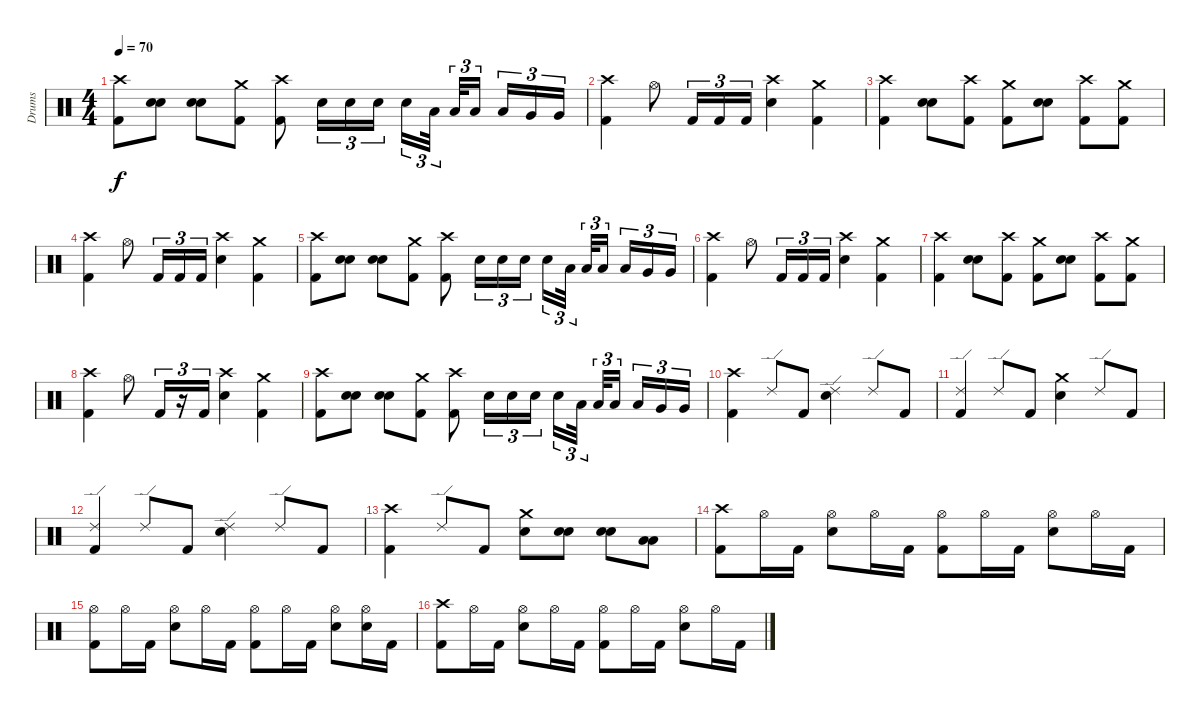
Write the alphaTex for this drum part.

\track ("Drums" "Drums") {instrument percussion}
\staff {score}
\articulation defaults
\ts (4 4)
\tempo 70
\clef neutral
\ks c
("Crash high (hit)" "Kick (hit) 2").8{dy f} ("Electric Snare (hit)" "Electric Snare (hit)").8{bu 60} ("Electric Snare (hit)" "Electric Snare (hit)").8{bu 60} ("Crash medium (hit)" "Kick (hit) 2").8 ("Crash high (hit)" "Kick (hit) 2").8 "Electric Snare (hit)".16{tu (3 2)} "Electric Snare (hit)".16{tu (3 2)} "Electric Snare (hit)".16{tu (3 2)} "Electric Snare (hit)".16{tu (3 2)} "Low Tom (hit)".32{tu (3 2)} "Low Tom (hit)".32{tu (3 2)} "Low Tom (hit)".16{tu (3 2)} "Low Tom (hit)".16{tu (3 2)} "Very Low Tom (hit)".16{tu (3 2)} "Very Low Tom (hit)".16{tu (3 2)} |
("Crash high (hit)" "Kick (hit) 2").4 "Hi-Hat (open)".8 "Kick (hit) 2".16{tu (3 2)} "Kick (hit) 2".16{tu (3 2)} "Kick (hit) 2".16{tu (3 2)} ("Crash high (hit)" "Electric Snare (hit)").4 ("Crash medium (hit)" "Kick (hit) 2").4 |
("Crash high (hit)" "Kick (hit) 2").4 ("Electric Snare (hit)" "Electric Snare (hit)").8{bu 60} ("Crash high (hit)" "Kick (hit) 2").8 ("Crash medium (hit)" "Kick (hit) 2").8 ("Electric Snare (hit)" "Electric Snare (hit)").8{bu 60} ("Crash high (hit)" "Kick (hit) 2").8 ("Crash medium (hit)" "Kick (hit) 2").8 |
("Crash high (hit)" "Kick (hit) 2").4 "Hi-Hat (open)".8 "Kick (hit) 2".16{tu (3 2)} "Kick (hit) 2".16{tu (3 2)} "Kick (hit) 2".16{tu (3 2)} ("Crash high (hit)" "Electric Snare (hit)").4 ("Crash medium (hit)" "Kick (hit) 2").4 |
("Crash high (hit)" "Kick (hit) 2").8 ("Electric Snare (hit)" "Electric Snare (hit)").8{bu 60} ("Electric Snare (hit)" "Electric Snare (hit)").8{bu 60} ("Crash medium (hit)" "Kick (hit) 2").8 ("Crash high (hit)" "Kick (hit) 2").8 "Electric Snare (hit)".16{tu (3 2)} "Electric Snare (hit)".16{tu (3 2)} "Electric Snare (hit)".16{tu (3 2)} "Electric Snare (hit)".16{tu (3 2)} "Low Tom (hit)".32{tu (3 2)} "Low Tom (hit)".32{tu (3 2)} "Low Tom (hit)".16{tu (3 2)} "Low Tom (hit)".16{tu (3 2)} "Very Low Tom (hit)".16{tu (3 2)} "Very Low Tom (hit)".16{tu (3 2)} |
("Crash high (hit)" "Kick (hit) 2").4 "Hi-Hat (open)".8 "Kick (hit) 2".16{tu (3 2)} "Kick (hit) 2".16{tu (3 2)} "Kick (hit) 2".16{tu (3 2)} ("Crash high (hit)" "Electric Snare (hit)").4 ("Crash medium (hit)" "Kick (hit) 2").4 |
("Crash high (hit)" "Kick (hit) 2").4 ("Electric Snare (hit)" "Electric Snare (hit)").8{bu 60} ("Crash high (hit)" "Kick (hit) 2").8 ("Crash medium (hit)" "Kick (hit) 2").8 ("Electric Snare (hit)" "Electric Snare (hit)").8{bu 60} ("Crash high (hit)" "Kick (hit) 2").8 ("Crash medium (hit)" "Kick (hit) 2").8 |
("Crash high (hit)" "Kick (hit) 2").4 "Hi-Hat (open)".8 "Kick (hit) 2".16{tu (3 2)} r.16{tu (3 2)} "Kick (hit) 2".16{tu (3 2)} ("Crash high (hit)" "Electric Snare (hit)").4 ("Crash medium (hit)" "Kick (hit) 2").4 |
("Crash high (hit)" "Kick (hit) 2").8 ("Electric Snare (hit)" "Electric Snare (hit)").8{bu 60} ("Electric Snare (hit)" "Electric Snare (hit)").8{bu 60} ("Crash medium (hit)" "Kick (hit) 2").8 ("Crash high (hit)" "Kick (hit) 2").8 "Electric Snare (hit)".16{tu (3 2)} "Electric Snare (hit)".16{tu (3 2)} "Electric Snare (hit)".16{tu (3 2)} "Electric Snare (hit)".16{tu (3 2)} "Low Tom (hit)".32{tu (3 2)} "Low Tom (hit)".32{tu (3 2)} "Low Tom (hit)".16{tu (3 2)} "Low Tom (hit)".16{tu (3 2)} "Very Low Tom (hit)".16{tu (3 2)} "Very Low Tom (hit)".16{tu (3 2)} |
("Crash high (hit)" "Kick (hit) 2").4 "Ride (edge) 2".8 "Kick (hit) 2".8 ("Ride (edge) 2" "Electric Snare (hit)").4 "Ride (edge) 2".8 "Kick (hit) 2".8 |
("Ride (edge) 2" "Kick (hit) 2").4 "Ride (edge) 2".8 "Kick (hit) 2".8 ("Crash medium (hit)" "Electric Snare (hit)").4 "Ride (edge) 2".8 "Kick (hit) 2".8 |
("Ride (edge) 2" "Kick (hit) 2").4 "Ride (edge) 2".8 "Kick (hit) 2".8 ("Ride (edge) 2" "Electric Snare (hit)").4 "Ride (edge) 2".8 "Kick (hit) 2".8 |
("Crash high (hit)" "Kick (hit) 2").4 "Ride (edge) 2".8 "Kick (hit) 2".8 ("Crash medium (hit)" "Electric Snare (hit)").8 ("Electric Snare (hit)" "Electric Snare (hit)").8{bu 60} ("Electric Snare (hit)" "Electric Snare (hit)").8{bu 60} ("Low Tom (hit)" "Low Tom (hit)").8{bu 60} |
("Crash high (hit)" "Kick (hit) 2").8 "Hi-Hat (open)".16 "Kick (hit) 2".16 ("Hi-Hat (open)" "Electric Snare (hit)").8 "Hi-Hat (open)".16 "Kick (hit) 2".16 ("Hi-Hat (open)" "Kick (hit) 2").8 "Hi-Hat (open)".16 "Kick (hit) 2".16 ("Hi-Hat (open)" "Electric Snare (hit)").8 "Hi-Hat (open)".16 "Kick (hit) 2".16 |
("Hi-Hat (open)" "Kick (hit) 2").8 "Hi-Hat (open)".16 "Kick (hit) 2".16 ("Hi-Hat (open)" "Electric Snare (hit)").8 "Hi-Hat (open)".16 "Kick (hit) 2".16 ("Hi-Hat (open)" "Kick (hit) 2").8 "Hi-Hat (open)".16 "Kick (hit) 2".16 ("Hi-Hat (open)" "Electric Snare (hit)").8 ("Hi-Hat (open)" "Electric Snare (hit)").16 "Kick (hit) 2".16 |
("Crash high (hit)" "Kick (hit) 2").8 "Hi-Hat (open)".16 "Kick (hit) 2".16 ("Hi-Hat (open)" "Electric Snare (hit)").8 "Hi-Hat (open)".16 "Kick (hit) 2".16 ("Hi-Hat (open)" "Kick (hit) 2").8 "Hi-Hat (open)".16 "Kick (hit) 2".16 ("Hi-Hat (open)" "Electric Snare (hit)").8 "Hi-Hat (open)".16 "Kick (hit) 2".16
